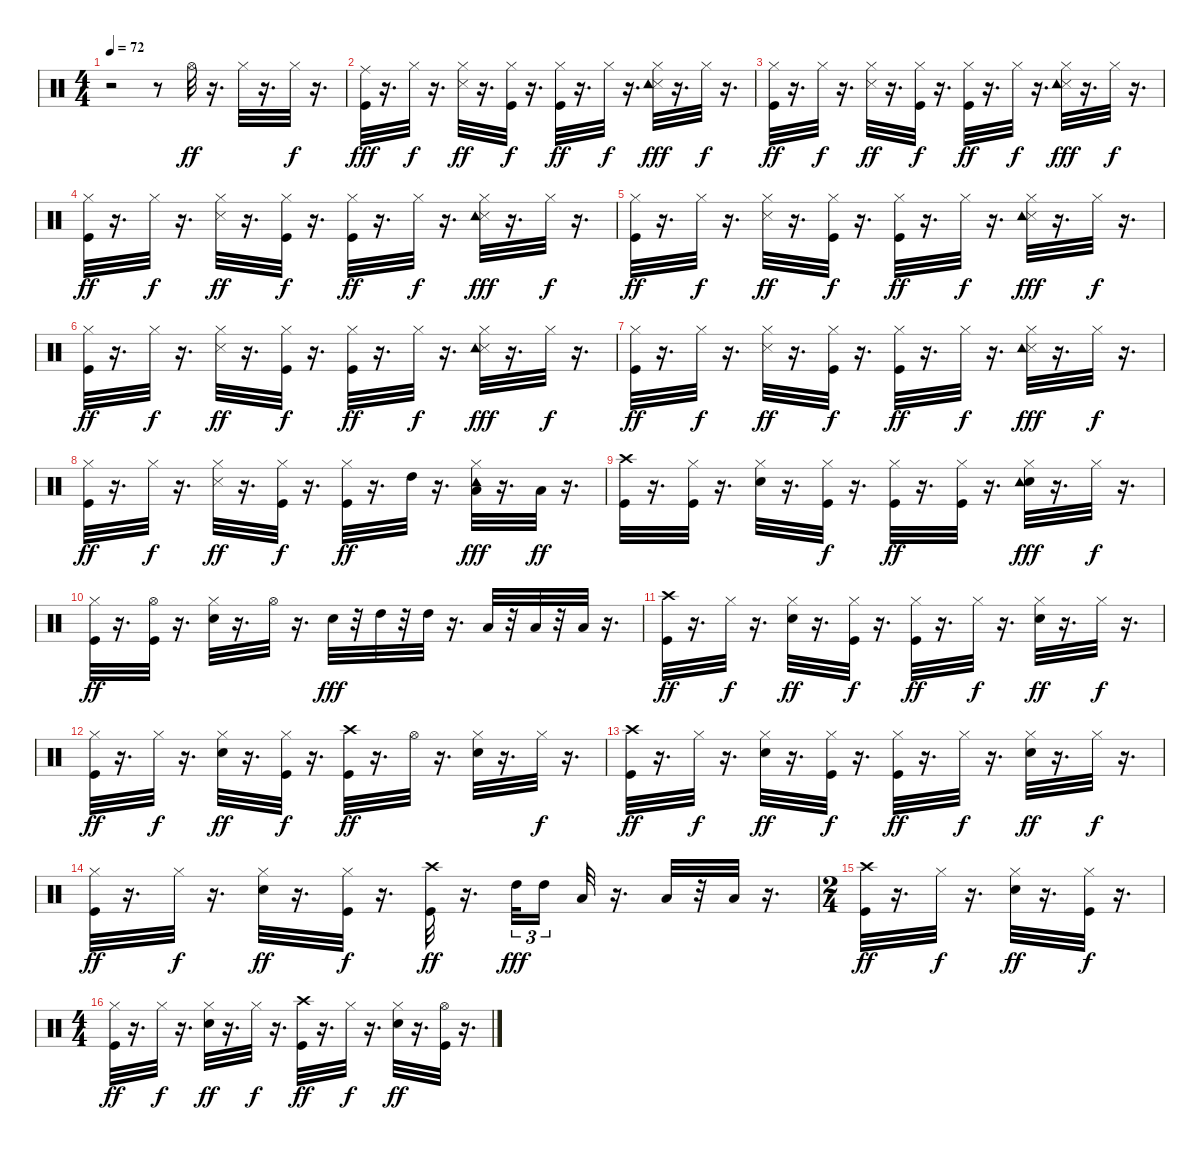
\track (" " " ") {instrument percussion}
\staff {score}
\articulation defaults
\ts (4 4)
\tempo 72
\clef neutral
\ks c
r.2{dy ff} r.8 "Hi-Hat (open)".32 r.16{d} "Hi-Hat (closed)".32 r.16{d} "Hi-Hat (closed)".32{dy f} r.16{d} |
("Kick (hit)" "Ride (middle)").32{dy fff} r.16{d} "Hi-Hat (closed)".32{dy f} r.16{d} ("Snare (side stick) 3" "Hi-Hat (closed)").32{dy ff} r.16{d} ("Kick (hit)" "Hi-Hat (closed)").32{dy f} r.16{d} ("Kick (hit)" "Hi-Hat (closed)").32{dy ff} r.16{d} "Hi-Hat (closed)".32{dy f} r.16{d} ("Snare (side stick) 3" "Hi-Hat (closed)" "Tambourine (hit)").32{dy fff} r.16{d} "Hi-Hat (closed)".32{dy f} r.16{d} |
("Kick (hit)" "Hi-Hat (closed)").32{dy ff} r.16{d} "Hi-Hat (closed)".32{dy f} r.16{d} ("Snare (side stick) 3" "Hi-Hat (closed)").32{dy ff} r.16{d} ("Kick (hit)" "Hi-Hat (closed)").32{dy f} r.16{d} ("Kick (hit)" "Hi-Hat (closed)").32{dy ff} r.16{d} "Hi-Hat (closed)".32{dy f} r.16{d} ("Snare (side stick) 3" "Hi-Hat (closed)" "Tambourine (hit)").32{dy fff} r.16{d} "Hi-Hat (closed)".32{dy f} r.16{d} |
("Kick (hit)" "Hi-Hat (closed)").32{dy ff} r.16{d} "Hi-Hat (closed)".32{dy f} r.16{d} ("Snare (side stick) 3" "Hi-Hat (closed)").32{dy ff} r.16{d} ("Kick (hit)" "Hi-Hat (closed)").32{dy f} r.16{d} ("Kick (hit)" "Hi-Hat (closed)").32{dy ff} r.16{d} "Hi-Hat (closed)".32{dy f} r.16{d} ("Snare (side stick) 3" "Hi-Hat (closed)" "Tambourine (hit)").32{dy fff} r.16{d} "Hi-Hat (closed)".32{dy f} r.16{d} |
("Kick (hit)" "Hi-Hat (closed)").32{dy ff} r.16{d} "Hi-Hat (closed)".32{dy f} r.16{d} ("Snare (side stick) 3" "Hi-Hat (closed)").32{dy ff} r.16{d} ("Kick (hit)" "Hi-Hat (closed)").32{dy f} r.16{d} ("Kick (hit)" "Hi-Hat (closed)").32{dy ff} r.16{d} "Hi-Hat (closed)".32{dy f} r.16{d} ("Snare (side stick) 3" "Hi-Hat (closed)" "Tambourine (hit)").32{dy fff} r.16{d} "Hi-Hat (closed)".32{dy f} r.16{d} |
("Kick (hit)" "Hi-Hat (closed)").32{dy ff} r.16{d} "Hi-Hat (closed)".32{dy f} r.16{d} ("Snare (side stick) 3" "Hi-Hat (closed)").32{dy ff} r.16{d} ("Kick (hit)" "Hi-Hat (closed)").32{dy f} r.16{d} ("Kick (hit)" "Hi-Hat (closed)").32{dy ff} r.16{d} "Hi-Hat (closed)".32{dy f} r.16{d} ("Snare (side stick) 3" "Hi-Hat (closed)" "Tambourine (hit)").32{dy fff} r.16{d} "Hi-Hat (closed)".32{dy f} r.16{d} |
("Kick (hit)" "Hi-Hat (closed)").32{dy ff} r.16{d} "Hi-Hat (closed)".32{dy f} r.16{d} ("Snare (side stick) 3" "Hi-Hat (closed)").32{dy ff} r.16{d} ("Kick (hit)" "Hi-Hat (closed)").32{dy f} r.16{d} ("Kick (hit)" "Hi-Hat (closed)").32{dy ff} r.16{d} "Hi-Hat (closed)".32{dy f} r.16{d} ("Snare (side stick) 3" "Hi-Hat (closed)" "Tambourine (hit)").32{dy fff} r.16{d} "Hi-Hat (closed)".32{dy f} r.16{d} |
("Kick (hit)" "Hi-Hat (closed)").32{dy ff} r.16{d} "Hi-Hat (closed)".32{dy f} r.16{d} ("Snare (side stick) 3" "Hi-Hat (closed)").32{dy ff} r.16{d} ("Kick (hit)" "Hi-Hat (closed)").32{dy f} r.16{d} ("Kick (hit)" "Hi-Hat (closed)").32{dy ff} r.16{d} "High Tom (hit)".32 r.16{d} ("Hi-Hat (closed)" "Low Tom (hit)" "Tambourine (hit)").32{dy fff} r.16{d} "Low Floor Tom (hit)".32{dy ff} r.16{d} |
("Kick (hit)" "Crash high (hit)").32 r.16{d} ("Kick (hit)" "Hi-Hat (closed)").32 r.16{d} ("Electric Snare (hit)" "Hi-Hat (closed)").32 r.16{d} ("Kick (hit)" "Hi-Hat (closed)").32{dy f} r.16{d} ("Kick (hit)" "Hi-Hat (closed)").32{dy ff} r.16{d} ("Kick (hit)" "Hi-Hat (closed)").32 r.16{d} ("Electric Snare (hit)" "Hi-Hat (closed)" "Tambourine (hit)").32{dy fff} r.16{d} "Hi-Hat (closed)".32{dy f} r.16{d} |
("Kick (hit)" "Hi-Hat (closed)").32{dy ff} r.16{d} ("Kick (hit)" "Hi-Hat (open)").32 r.16{d} ("Electric Snare (hit)" "Hi-Hat (closed)").32 r.16{d} "Hi-Hat (open)".32 r.16{d} "Electric Snare (hit)".32{dy fff} r.32 "High Tom (hit)".32 r.32 "High Tom (hit)".32 r.16{d} "Low Tom (hit)".32 r.32 "Low Tom (hit)".32 r.32 "Low Floor Tom (hit)".32 r.16{d} |
("Kick (hit)" "Crash high (hit)").32{dy ff} r.16{d} "Hi-Hat (closed)".32{dy f} r.16{d} ("Electric Snare (hit)" "Hi-Hat (closed)").32{dy ff} r.16{d} ("Kick (hit)" "Hi-Hat (closed)").32{dy f} r.16{d} ("Kick (hit)" "Hi-Hat (closed)").32{dy ff} r.16{d} "Hi-Hat (closed)".32{dy f} r.16{d} ("Electric Snare (hit)" "Hi-Hat (closed)").32{dy ff} r.16{d} "Hi-Hat (closed)".32{dy f} r.16{d} |
("Kick (hit)" "Hi-Hat (closed)").32{dy ff} r.16{d} "Hi-Hat (closed)".32{dy f} r.16{d} ("Electric Snare (hit)" "Hi-Hat (closed)").32{dy ff} r.16{d} ("Kick (hit)" "Hi-Hat (closed)").32{dy f} r.16{d} ("Kick (hit)" "Crash high (hit)").32{dy ff} r.16{d} "Hi-Hat (open)".32 r.16{d} ("Electric Snare (hit)" "Hi-Hat (closed)").32 r.16{d} "Hi-Hat (closed)".32{dy f} r.16{d} |
("Kick (hit)" "Crash high (hit)").32{dy ff} r.16{d} "Hi-Hat (closed)".32{dy f} r.16{d} ("Electric Snare (hit)" "Hi-Hat (closed)").32{dy ff} r.16{d} ("Kick (hit)" "Hi-Hat (closed)").32{dy f} r.16{d} ("Kick (hit)" "Hi-Hat (closed)").32{dy ff} r.16{d} "Hi-Hat (closed)".32{dy f} r.16{d} ("Electric Snare (hit)" "Hi-Hat (closed)").32{dy ff} r.16{d} "Hi-Hat (closed)".32{dy f} r.16{d} |
("Kick (hit)" "Hi-Hat (closed)").32{dy ff} r.16{d} "Hi-Hat (closed)".32{dy f} r.16{d} ("Electric Snare (hit)" "Hi-Hat (closed)").32{dy ff} r.16{d} ("Kick (hit)" "Hi-Hat (closed)").32{dy f} r.16{d} ("Kick (hit)" "Crash high (hit)").32{dy ff} r.16{d} "High Tom (hit)".32{tu (3 2) dy fff} "High Tom (hit)".16{tu (3 2) beam splitsecondary} "Low Tom (hit)".32 r.16{d} "Low Tom (hit)".32 r.32 "Low Floor Tom (hit)".32 r.16{d} |
\ts (2 4)
("Kick (hit)" "Crash high (hit)").32{dy ff} r.16{d} "Hi-Hat (closed)".32{dy f} r.16{d} ("Electric Snare (hit)" "Hi-Hat (closed)").32{dy ff} r.16{d} ("Kick (hit)" "Hi-Hat (closed)").32{dy f} r.16{d} |
\ts (4 4)
("Kick (hit)" "Hi-Hat (closed)").32{dy ff} r.16{d} "Hi-Hat (closed)".32{dy f} r.16{d} ("Electric Snare (hit)" "Hi-Hat (closed)").32{dy ff} r.16{d} "Hi-Hat (closed)".32{dy f} r.16{d} ("Kick (hit)" "Crash high (hit)").32{dy ff} r.16{d} "Hi-Hat (closed)".32{dy f} r.16{d} ("Electric Snare (hit)" "Hi-Hat (closed)").32{dy ff} r.16{d} ("Kick (hit)" "Hi-Hat (open)").32 r.16{d}
